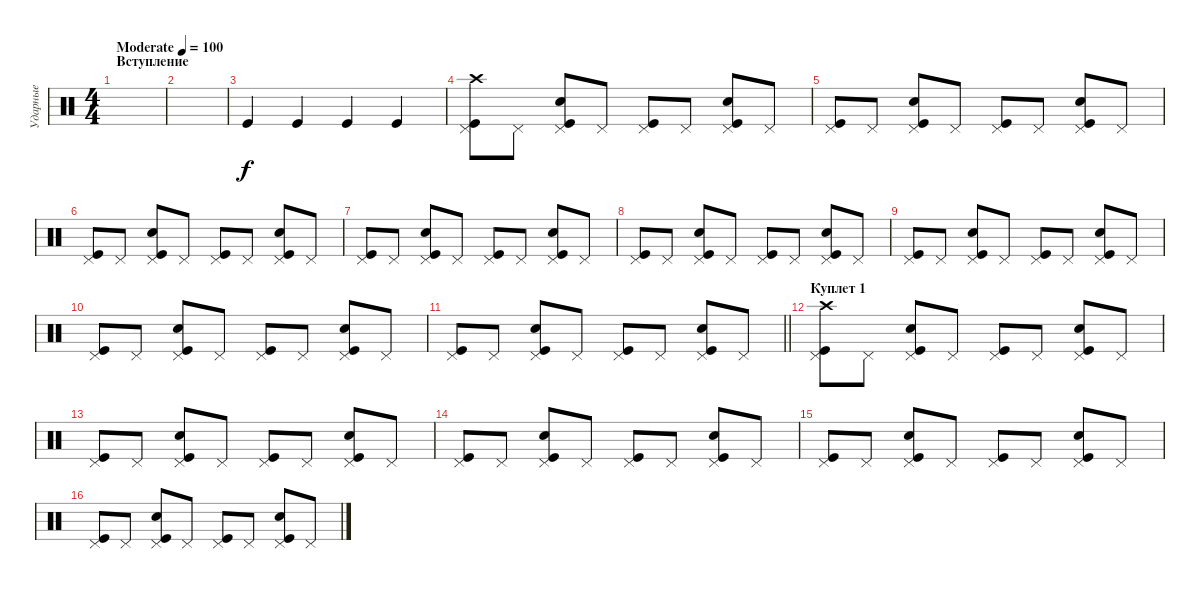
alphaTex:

\track ("Ударные" "Ударные") {instrument percussion}
\staff {score}
\articulation defaults
\ts (4 4)
\section ("" "Вступление")
\tempo (100 "Moderate")
\clef neutral
\ks c
|
|
"Kick (hit)".4 "Kick (hit)".4 "Kick (hit)".4 "Kick (hit)".4 |
("Pedal Hi-Hat (hit)" "Kick (hit)" "Crash high (hit)").8 "Pedal Hi-Hat (hit)".8 ("Pedal Hi-Hat (hit)" "Kick (hit)" "Snare (hit) 2").8 "Pedal Hi-Hat (hit)".8 ("Pedal Hi-Hat (hit)" "Kick (hit)").8 "Pedal Hi-Hat (hit)".8 ("Pedal Hi-Hat (hit)" "Kick (hit)" "Snare (hit) 2").8 "Pedal Hi-Hat (hit)".8 |
("Pedal Hi-Hat (hit)" "Kick (hit)").8 "Pedal Hi-Hat (hit)".8 ("Pedal Hi-Hat (hit)" "Kick (hit)" "Snare (hit) 2").8 "Pedal Hi-Hat (hit)".8 ("Pedal Hi-Hat (hit)" "Kick (hit)").8 "Pedal Hi-Hat (hit)".8 ("Pedal Hi-Hat (hit)" "Kick (hit)" "Snare (hit) 2").8 "Pedal Hi-Hat (hit)".8 |
("Pedal Hi-Hat (hit)" "Kick (hit)").8 "Pedal Hi-Hat (hit)".8 ("Pedal Hi-Hat (hit)" "Kick (hit)" "Snare (hit) 2").8 "Pedal Hi-Hat (hit)".8 ("Pedal Hi-Hat (hit)" "Kick (hit)").8 "Pedal Hi-Hat (hit)".8 ("Pedal Hi-Hat (hit)" "Kick (hit)" "Snare (hit) 2").8 "Pedal Hi-Hat (hit)".8 |
("Pedal Hi-Hat (hit)" "Kick (hit)").8 "Pedal Hi-Hat (hit)".8 ("Pedal Hi-Hat (hit)" "Kick (hit)" "Snare (hit) 2").8 "Pedal Hi-Hat (hit)".8 ("Pedal Hi-Hat (hit)" "Kick (hit)").8 "Pedal Hi-Hat (hit)".8 ("Pedal Hi-Hat (hit)" "Kick (hit)" "Snare (hit) 2").8 "Pedal Hi-Hat (hit)".8 |
("Pedal Hi-Hat (hit)" "Kick (hit)").8 "Pedal Hi-Hat (hit)".8 ("Pedal Hi-Hat (hit)" "Kick (hit)" "Snare (hit) 2").8 "Pedal Hi-Hat (hit)".8 ("Pedal Hi-Hat (hit)" "Kick (hit)").8 "Pedal Hi-Hat (hit)".8 ("Pedal Hi-Hat (hit)" "Kick (hit)" "Snare (hit) 2").8 "Pedal Hi-Hat (hit)".8 |
("Pedal Hi-Hat (hit)" "Kick (hit)").8 "Pedal Hi-Hat (hit)".8 ("Pedal Hi-Hat (hit)" "Kick (hit)" "Snare (hit) 2").8 "Pedal Hi-Hat (hit)".8 ("Pedal Hi-Hat (hit)" "Kick (hit)").8 "Pedal Hi-Hat (hit)".8 ("Pedal Hi-Hat (hit)" "Kick (hit)" "Snare (hit) 2").8 "Pedal Hi-Hat (hit)".8 |
("Pedal Hi-Hat (hit)" "Kick (hit)").8 "Pedal Hi-Hat (hit)".8 ("Pedal Hi-Hat (hit)" "Kick (hit)" "Snare (hit) 2").8 "Pedal Hi-Hat (hit)".8 ("Pedal Hi-Hat (hit)" "Kick (hit)").8 "Pedal Hi-Hat (hit)".8 ("Pedal Hi-Hat (hit)" "Kick (hit)" "Snare (hit) 2").8 "Pedal Hi-Hat (hit)".8 |
\barLineRight lightlight
("Pedal Hi-Hat (hit)" "Kick (hit)").8 "Pedal Hi-Hat (hit)".8 ("Pedal Hi-Hat (hit)" "Kick (hit)" "Snare (hit) 2").8 "Pedal Hi-Hat (hit)".8 ("Pedal Hi-Hat (hit)" "Kick (hit)").8 "Pedal Hi-Hat (hit)".8 ("Pedal Hi-Hat (hit)" "Kick (hit)" "Snare (hit) 2").8 "Pedal Hi-Hat (hit)".8 |
\section ("" "Куплет 1")
("Pedal Hi-Hat (hit)" "Kick (hit)" "Crash high (hit)").8 "Pedal Hi-Hat (hit)".8 ("Pedal Hi-Hat (hit)" "Kick (hit)" "Snare (hit) 2").8 "Pedal Hi-Hat (hit)".8 ("Pedal Hi-Hat (hit)" "Kick (hit)").8 "Pedal Hi-Hat (hit)".8 ("Pedal Hi-Hat (hit)" "Kick (hit)" "Snare (hit) 2").8 "Pedal Hi-Hat (hit)".8 |
("Pedal Hi-Hat (hit)" "Kick (hit)").8 "Pedal Hi-Hat (hit)".8 ("Pedal Hi-Hat (hit)" "Kick (hit)" "Snare (hit) 2").8 "Pedal Hi-Hat (hit)".8 ("Pedal Hi-Hat (hit)" "Kick (hit)").8 "Pedal Hi-Hat (hit)".8 ("Pedal Hi-Hat (hit)" "Kick (hit)" "Snare (hit) 2").8 "Pedal Hi-Hat (hit)".8 |
("Pedal Hi-Hat (hit)" "Kick (hit)").8 "Pedal Hi-Hat (hit)".8 ("Pedal Hi-Hat (hit)" "Kick (hit)" "Snare (hit) 2").8 "Pedal Hi-Hat (hit)".8 ("Pedal Hi-Hat (hit)" "Kick (hit)").8 "Pedal Hi-Hat (hit)".8 ("Pedal Hi-Hat (hit)" "Kick (hit)" "Snare (hit) 2").8 "Pedal Hi-Hat (hit)".8 |
("Pedal Hi-Hat (hit)" "Kick (hit)").8 "Pedal Hi-Hat (hit)".8 ("Pedal Hi-Hat (hit)" "Kick (hit)" "Snare (hit) 2").8 "Pedal Hi-Hat (hit)".8 ("Pedal Hi-Hat (hit)" "Kick (hit)").8 "Pedal Hi-Hat (hit)".8 ("Pedal Hi-Hat (hit)" "Kick (hit)" "Snare (hit) 2").8 "Pedal Hi-Hat (hit)".8 |
("Pedal Hi-Hat (hit)" "Kick (hit)").8 "Pedal Hi-Hat (hit)".8 ("Pedal Hi-Hat (hit)" "Kick (hit)" "Snare (hit) 2").8 "Pedal Hi-Hat (hit)".8 ("Pedal Hi-Hat (hit)" "Kick (hit)").8 "Pedal Hi-Hat (hit)".8 ("Pedal Hi-Hat (hit)" "Kick (hit)" "Snare (hit) 2").8 "Pedal Hi-Hat (hit)".8
